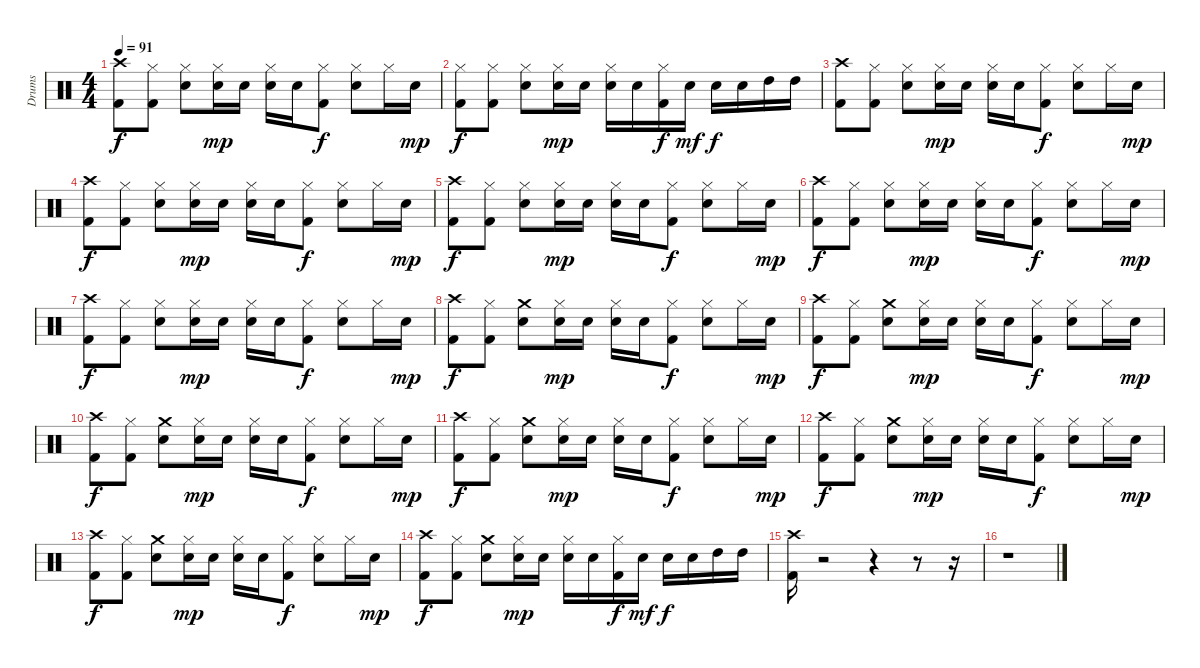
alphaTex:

\track ("Drums" "Drums") {instrument percussion}
\staff {score}
\articulation defaults
\ts (4 4)
\tempo 91
\clef neutral
\ks c
("Crash high (hit)" "Kick (hit) 2").8{dy f} ("Kick (hit) 2" "Hi-Hat (closed)").8 ("Snare (hit) 2" "Hi-Hat (closed)").8 ("Hi-Hat (closed)" "Snare (hit) 2").16{dy mp} "Snare (hit) 2".16 ("Hi-Hat (closed)" "Snare (hit) 2").16 "Snare (hit) 2".16 ("Kick (hit) 2" "Hi-Hat (closed)").8{dy f} ("Hi-Hat (closed)" "Snare (hit) 2").8 "Hi-Hat (closed)".16 "Snare (hit) 2".16{dy mp} |
("Kick (hit) 2" "Hi-Hat (closed)").8{dy f} ("Kick (hit) 2" "Hi-Hat (closed)").8 ("Hi-Hat (closed)" "Snare (hit) 2").8 ("Snare (hit) 2" "Hi-Hat (closed)").16{dy mp} "Snare (hit) 2".16 ("Hi-Hat (closed)" "Snare (hit) 2").16 "Snare (hit) 2".16 ("Hi-Hat (closed)" "Kick (hit) 2").16{dy f} "Snare (hit) 2".16{dy mf} "Snare (hit) 2".16{dy f} "Snare (hit) 2".16 "High Tom (hit)".16 "High Tom (hit)".16 |
("Kick (hit) 2" "Crash high (hit)").8{volume 16} ("Kick (hit) 2" "Hi-Hat (closed)").8 ("Hi-Hat (closed)" "Snare (hit) 2").8 ("Snare (hit) 2" "Hi-Hat (closed)").16{dy mp} "Snare (hit) 2".16 ("Hi-Hat (closed)" "Snare (hit) 2").16 "Snare (hit) 2".16 ("Kick (hit) 2" "Hi-Hat (closed)").8{dy f} ("Hi-Hat (closed)" "Snare (hit) 2").8 "Hi-Hat (closed)".16 "Snare (hit) 2".16{dy mp} |
("Crash high (hit)" "Kick (hit) 2").8{dy f} ("Hi-Hat (closed)" "Kick (hit) 2").8 ("Snare (hit) 2" "Hi-Hat (closed)").8 ("Snare (hit) 2" "Hi-Hat (closed)").16{dy mp} "Snare (hit) 2".16 ("Snare (hit) 2" "Hi-Hat (closed)").16 "Snare (hit) 2".16 ("Hi-Hat (closed)" "Kick (hit) 2").8{dy f} ("Snare (hit) 2" "Hi-Hat (closed)").8 "Hi-Hat (closed)".16 "Snare (hit) 2".16{dy mp} |
("Kick (hit) 2" "Crash high (hit)").8{dy f} ("Hi-Hat (closed)" "Kick (hit) 2").8 ("Snare (hit) 2" "Hi-Hat (closed)").8 ("Snare (hit) 2" "Hi-Hat (closed)").16{dy mp} "Snare (hit) 2".16 ("Hi-Hat (closed)" "Snare (hit) 2").16 "Snare (hit) 2".16 ("Kick (hit) 2" "Hi-Hat (closed)").8{dy f} ("Hi-Hat (closed)" "Snare (hit) 2").8 "Hi-Hat (closed)".16 "Snare (hit) 2".16{dy mp} |
("Kick (hit) 2" "Crash high (hit)").8{dy f} ("Hi-Hat (closed)" "Kick (hit) 2").8 ("Hi-Hat (closed)" "Snare (hit) 2").8 ("Snare (hit) 2" "Hi-Hat (closed)").16{dy mp} "Snare (hit) 2".16 ("Hi-Hat (closed)" "Snare (hit) 2").16 "Snare (hit) 2".16 ("Hi-Hat (closed)" "Kick (hit) 2").8{dy f} ("Snare (hit) 2" "Hi-Hat (closed)").8 "Hi-Hat (closed)".16 "Snare (hit) 2".16{dy mp} |
("Crash high (hit)" "Kick (hit) 2").8{dy f} ("Kick (hit) 2" "Hi-Hat (closed)").8 ("Snare (hit) 2" "Hi-Hat (closed)").8 ("Hi-Hat (closed)" "Snare (hit) 2").16{dy mp} "Snare (hit) 2".16 ("Snare (hit) 2" "Hi-Hat (closed)").16 "Snare (hit) 2".16 ("Kick (hit) 2" "Hi-Hat (closed)").8{dy f} ("Snare (hit) 2" "Hi-Hat (closed)").8 "Hi-Hat (closed)".16 "Snare (hit) 2".16{dy mp} |
("Kick (hit) 2" "Crash high (hit)").8{dy f} ("Hi-Hat (closed)" "Kick (hit) 2").8 ("Crash medium (hit)" "Snare (hit) 2").8 ("Hi-Hat (closed)" "Snare (hit) 2").16{dy mp} "Snare (hit) 2".16 ("Snare (hit) 2" "Hi-Hat (closed)").16 "Snare (hit) 2".16 ("Kick (hit) 2" "Hi-Hat (closed)").8{dy f} ("Snare (hit) 2" "Hi-Hat (closed)").8 "Hi-Hat (closed)".16 "Snare (hit) 2".16{dy mp} |
("Crash high (hit)" "Kick (hit) 2").8{dy f} ("Kick (hit) 2" "Hi-Hat (closed)").8 ("Crash medium (hit)" "Snare (hit) 2").8 ("Snare (hit) 2" "Hi-Hat (closed)").16{dy mp} "Snare (hit) 2".16 ("Hi-Hat (closed)" "Snare (hit) 2").16 "Snare (hit) 2".16 ("Kick (hit) 2" "Hi-Hat (closed)").8{dy f} ("Hi-Hat (closed)" "Snare (hit) 2").8 "Hi-Hat (closed)".16 "Snare (hit) 2".16{dy mp} |
("Kick (hit) 2" "Crash high (hit)").8{dy f} ("Kick (hit) 2" "Hi-Hat (closed)").8 ("Snare (hit) 2" "Crash medium (hit)").8 ("Hi-Hat (closed)" "Snare (hit) 2").16{dy mp} "Snare (hit) 2".16 ("Snare (hit) 2" "Hi-Hat (closed)").16 "Snare (hit) 2".16 ("Hi-Hat (closed)" "Kick (hit) 2").8{dy f} ("Snare (hit) 2" "Hi-Hat (closed)").8 "Hi-Hat (closed)".16 "Snare (hit) 2".16{dy mp} |
("Crash high (hit)" "Kick (hit) 2").8{dy f} ("Hi-Hat (closed)" "Kick (hit) 2").8 ("Snare (hit) 2" "Crash medium (hit)").8 ("Hi-Hat (closed)" "Snare (hit) 2").16{dy mp} "Snare (hit) 2".16 ("Hi-Hat (closed)" "Snare (hit) 2").16 "Snare (hit) 2".16 ("Kick (hit) 2" "Hi-Hat (closed)").8{dy f} ("Hi-Hat (closed)" "Snare (hit) 2").8 "Hi-Hat (closed)".16 "Snare (hit) 2".16{dy mp} |
("Kick (hit) 2" "Crash high (hit)").8{dy f} ("Hi-Hat (closed)" "Kick (hit) 2").8 ("Snare (hit) 2" "Crash medium (hit)").8 ("Snare (hit) 2" "Hi-Hat (closed)").16{dy mp} "Snare (hit) 2".16 ("Snare (hit) 2" "Hi-Hat (closed)").16 "Snare (hit) 2".16 ("Kick (hit) 2" "Hi-Hat (closed)").8{dy f} ("Snare (hit) 2" "Hi-Hat (closed)").8 "Hi-Hat (closed)".16 "Snare (hit) 2".16{dy mp} |
("Kick (hit) 2" "Crash high (hit)").8{dy f} ("Kick (hit) 2" "Hi-Hat (closed)").8 ("Crash medium (hit)" "Snare (hit) 2").8 ("Snare (hit) 2" "Hi-Hat (closed)").16{dy mp} "Snare (hit) 2".16 ("Snare (hit) 2" "Hi-Hat (closed)").16 "Snare (hit) 2".16 ("Hi-Hat (closed)" "Kick (hit) 2").8{dy f} ("Hi-Hat (closed)" "Snare (hit) 2").8 "Hi-Hat (closed)".16 "Snare (hit) 2".16{dy mp} |
("Kick (hit) 2" "Crash high (hit)").8{dy f} ("Hi-Hat (closed)" "Kick (hit) 2").8 ("Snare (hit) 2" "Crash medium (hit)").8 ("Hi-Hat (closed)" "Snare (hit) 2").16{dy mp} "Snare (hit) 2".16 ("Snare (hit) 2" "Hi-Hat (closed)").16 "Snare (hit) 2".16 ("Kick (hit) 2" "Hi-Hat (closed)").16{dy f} "Snare (hit) 2".16{dy mf} "Snare (hit) 2".16{dy f} "Snare (hit) 2".16 "High Tom (hit)".16 "High Tom (hit)".16 |
("Kick (hit) 2" "Crash high (hit)").16 r.2 r.4 r.8 r.16 |
r.1
